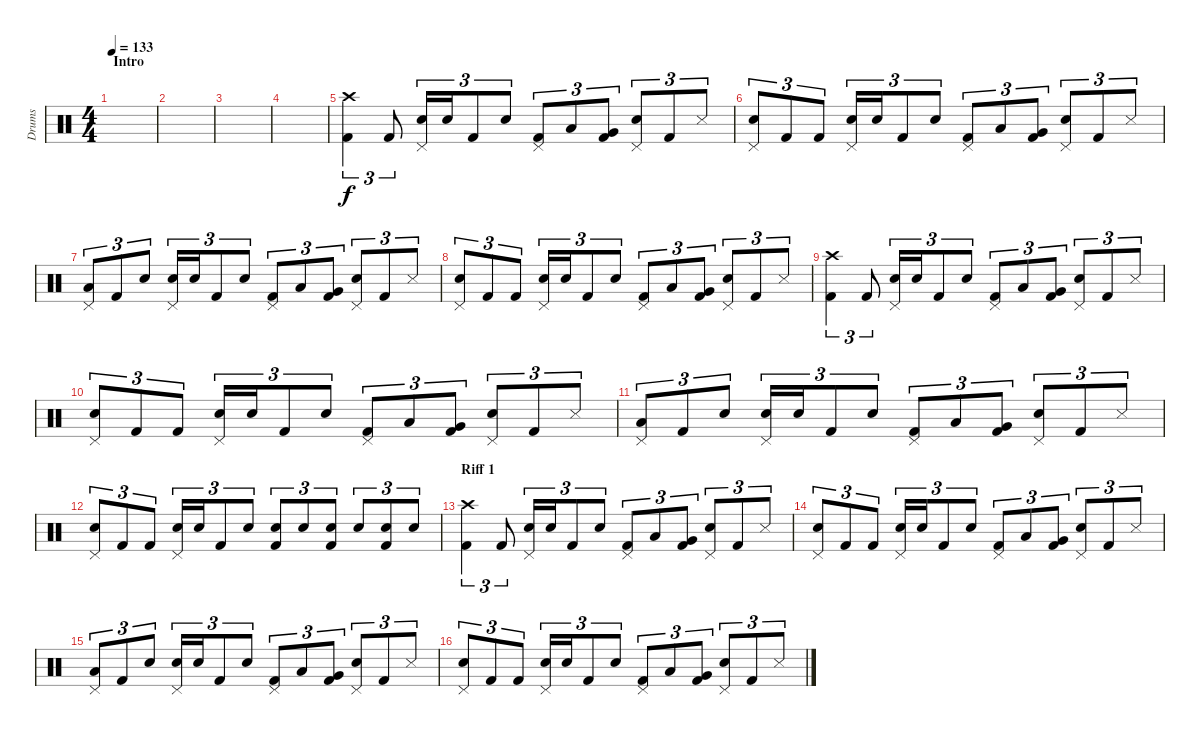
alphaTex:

\track ("Drums" "Drums") {instrument percussion}
\staff {score}
\articulation defaults
\ts (4 4)
\section ("" "Intro")
\tempo 133
\clef neutral
\ks c
|
|
|
|
("Kick (hit) 2" "Crash high (hit)").4{tu (3 2)} "Kick (hit) 2".8{tu (3 2)} ("Snare (hit) 2" "Pedal Hi-Hat (hit)").16{tu (3 2)} "Snare (hit) 2".16{tu (3 2)} "Kick (hit) 2".8{tu (3 2)} "Snare (hit) 2".8{tu (3 2)} ("Kick (hit) 2" "Pedal Hi-Hat (hit)").8{tu (3 2)} "Low Tom (hit)".8{tu (3 2)} ("Kick (hit) 2" "Very Low Tom (hit)").8{tu (3 2)} ("Snare (hit) 2" "Pedal Hi-Hat (hit)").8{tu (3 2)} "Kick (hit) 2".8{tu (3 2)} "Snare (side stick) 3".8{tu (3 2)} |
("Snare (hit) 2" "Pedal Hi-Hat (hit)").8{tu (3 2)} "Kick (hit) 2".8{tu (3 2)} "Kick (hit) 2".8{tu (3 2)} ("Snare (hit) 2" "Pedal Hi-Hat (hit)").16{tu (3 2)} "Snare (hit) 2".16{tu (3 2)} "Kick (hit) 2".8{tu (3 2)} "Snare (hit) 2".8{tu (3 2)} ("Kick (hit) 2" "Pedal Hi-Hat (hit)").8{tu (3 2)} "Low Tom (hit)".8{tu (3 2)} ("Kick (hit) 2" "Very Low Tom (hit)").8{tu (3 2)} ("Snare (hit) 2" "Pedal Hi-Hat (hit)").8{tu (3 2)} "Kick (hit) 2".8{tu (3 2)} "Snare (side stick) 3".8{tu (3 2)} |
("Low Tom (hit)" "Pedal Hi-Hat (hit)").8{tu (3 2)} "Kick (hit) 2".8{tu (3 2)} "Snare (hit) 2".8{tu (3 2)} ("Snare (hit) 2" "Pedal Hi-Hat (hit)").16{tu (3 2)} "Snare (hit) 2".16{tu (3 2)} "Kick (hit) 2".8{tu (3 2)} "Snare (hit) 2".8{tu (3 2)} ("Kick (hit) 2" "Pedal Hi-Hat (hit)").8{tu (3 2)} "Low Tom (hit)".8{tu (3 2)} ("Kick (hit) 2" "Very Low Tom (hit)").8{tu (3 2)} ("Snare (hit) 2" "Pedal Hi-Hat (hit)").8{tu (3 2)} "Kick (hit) 2".8{tu (3 2)} "Snare (side stick) 3".8{tu (3 2)} |
("Snare (hit) 2" "Pedal Hi-Hat (hit)").8{tu (3 2)} "Kick (hit) 2".8{tu (3 2)} "Kick (hit) 2".8{tu (3 2)} ("Snare (hit) 2" "Pedal Hi-Hat (hit)").16{tu (3 2)} "Snare (hit) 2".16{tu (3 2)} "Kick (hit) 2".8{tu (3 2)} "Snare (hit) 2".8{tu (3 2)} ("Kick (hit) 2" "Pedal Hi-Hat (hit)").8{tu (3 2)} "Low Tom (hit)".8{tu (3 2)} ("Kick (hit) 2" "Very Low Tom (hit)").8{tu (3 2)} ("Snare (hit) 2" "Pedal Hi-Hat (hit)").8{tu (3 2)} "Kick (hit) 2".8{tu (3 2)} "Snare (side stick) 3".8{tu (3 2)} |
("Kick (hit) 2" "Crash high (hit)").4{tu (3 2)} "Kick (hit) 2".8{tu (3 2)} ("Snare (hit) 2" "Pedal Hi-Hat (hit)").16{tu (3 2)} "Snare (hit) 2".16{tu (3 2)} "Kick (hit) 2".8{tu (3 2)} "Snare (hit) 2".8{tu (3 2)} ("Kick (hit) 2" "Pedal Hi-Hat (hit)").8{tu (3 2)} "Low Tom (hit)".8{tu (3 2)} ("Kick (hit) 2" "Very Low Tom (hit)").8{tu (3 2)} ("Snare (hit) 2" "Pedal Hi-Hat (hit)").8{tu (3 2)} "Kick (hit) 2".8{tu (3 2)} "Snare (side stick) 3".8{tu (3 2)} |
("Snare (hit) 2" "Pedal Hi-Hat (hit)").8{tu (3 2)} "Kick (hit) 2".8{tu (3 2)} "Kick (hit) 2".8{tu (3 2)} ("Snare (hit) 2" "Pedal Hi-Hat (hit)").16{tu (3 2)} "Snare (hit) 2".16{tu (3 2)} "Kick (hit) 2".8{tu (3 2)} "Snare (hit) 2".8{tu (3 2)} ("Kick (hit) 2" "Pedal Hi-Hat (hit)").8{tu (3 2)} "Low Tom (hit)".8{tu (3 2)} ("Kick (hit) 2" "Very Low Tom (hit)").8{tu (3 2)} ("Snare (hit) 2" "Pedal Hi-Hat (hit)").8{tu (3 2)} "Kick (hit) 2".8{tu (3 2)} "Snare (side stick) 3".8{tu (3 2)} |
("Low Tom (hit)" "Pedal Hi-Hat (hit)").8{tu (3 2)} "Kick (hit) 2".8{tu (3 2)} "Snare (hit) 2".8{tu (3 2)} ("Snare (hit) 2" "Pedal Hi-Hat (hit)").16{tu (3 2)} "Snare (hit) 2".16{tu (3 2)} "Kick (hit) 2".8{tu (3 2)} "Snare (hit) 2".8{tu (3 2)} ("Kick (hit) 2" "Pedal Hi-Hat (hit)").8{tu (3 2)} "Low Tom (hit)".8{tu (3 2)} ("Kick (hit) 2" "Very Low Tom (hit)").8{tu (3 2)} ("Snare (hit) 2" "Pedal Hi-Hat (hit)").8{tu (3 2)} "Kick (hit) 2".8{tu (3 2)} "Snare (side stick) 3".8{tu (3 2)} |
("Snare (hit) 2" "Pedal Hi-Hat (hit)").8{tu (3 2)} "Kick (hit) 2".8{tu (3 2)} "Kick (hit) 2".8{tu (3 2)} ("Snare (hit) 2" "Pedal Hi-Hat (hit)").16{tu (3 2)} "Snare (hit) 2".16{tu (3 2)} "Kick (hit) 2".8{tu (3 2)} "Snare (hit) 2".8{tu (3 2)} ("Kick (hit) 2" "Snare (hit) 2").8{tu (3 2)} "Snare (hit) 2".8{tu (3 2)} ("Kick (hit) 2" "Snare (hit) 2").8{tu (3 2)} "Snare (hit) 2".8{tu (3 2)} ("Kick (hit) 2" "Snare (hit) 2").8{tu (3 2)} "Snare (hit) 2".8{tu (3 2)} |
\section ("" "Riff 1")
("Kick (hit) 2" "Crash high (hit)").4{tu (3 2)} "Kick (hit) 2".8{tu (3 2)} ("Snare (hit) 2" "Pedal Hi-Hat (hit)").16{tu (3 2)} "Snare (hit) 2".16{tu (3 2)} "Kick (hit) 2".8{tu (3 2)} "Snare (hit) 2".8{tu (3 2)} ("Kick (hit) 2" "Pedal Hi-Hat (hit)").8{tu (3 2)} "Low Tom (hit)".8{tu (3 2)} ("Kick (hit) 2" "Very Low Tom (hit)").8{tu (3 2)} ("Snare (hit) 2" "Pedal Hi-Hat (hit)").8{tu (3 2)} "Kick (hit) 2".8{tu (3 2)} "Snare (side stick) 3".8{tu (3 2)} |
("Snare (hit) 2" "Pedal Hi-Hat (hit)").8{tu (3 2)} "Kick (hit) 2".8{tu (3 2)} "Kick (hit) 2".8{tu (3 2)} ("Snare (hit) 2" "Pedal Hi-Hat (hit)").16{tu (3 2)} "Snare (hit) 2".16{tu (3 2)} "Kick (hit) 2".8{tu (3 2)} "Snare (hit) 2".8{tu (3 2)} ("Kick (hit) 2" "Pedal Hi-Hat (hit)").8{tu (3 2)} "Low Tom (hit)".8{tu (3 2)} ("Kick (hit) 2" "Very Low Tom (hit)").8{tu (3 2)} ("Snare (hit) 2" "Pedal Hi-Hat (hit)").8{tu (3 2)} "Kick (hit) 2".8{tu (3 2)} "Snare (side stick) 3".8{tu (3 2)} |
("Low Tom (hit)" "Pedal Hi-Hat (hit)").8{tu (3 2)} "Kick (hit) 2".8{tu (3 2)} "Snare (hit) 2".8{tu (3 2)} ("Snare (hit) 2" "Pedal Hi-Hat (hit)").16{tu (3 2)} "Snare (hit) 2".16{tu (3 2)} "Kick (hit) 2".8{tu (3 2)} "Snare (hit) 2".8{tu (3 2)} ("Kick (hit) 2" "Pedal Hi-Hat (hit)").8{tu (3 2)} "Low Tom (hit)".8{tu (3 2)} ("Kick (hit) 2" "Very Low Tom (hit)").8{tu (3 2)} ("Snare (hit) 2" "Pedal Hi-Hat (hit)").8{tu (3 2)} "Kick (hit) 2".8{tu (3 2)} "Snare (side stick) 3".8{tu (3 2)} |
("Snare (hit) 2" "Pedal Hi-Hat (hit)").8{tu (3 2)} "Kick (hit) 2".8{tu (3 2)} "Kick (hit) 2".8{tu (3 2)} ("Snare (hit) 2" "Pedal Hi-Hat (hit)").16{tu (3 2)} "Snare (hit) 2".16{tu (3 2)} "Kick (hit) 2".8{tu (3 2)} "Snare (hit) 2".8{tu (3 2)} ("Kick (hit) 2" "Pedal Hi-Hat (hit)").8{tu (3 2)} "Low Tom (hit)".8{tu (3 2)} ("Kick (hit) 2" "Very Low Tom (hit)").8{tu (3 2)} ("Snare (hit) 2" "Pedal Hi-Hat (hit)").8{tu (3 2)} "Kick (hit) 2".8{tu (3 2)} "Snare (side stick) 3".8{tu (3 2)}
